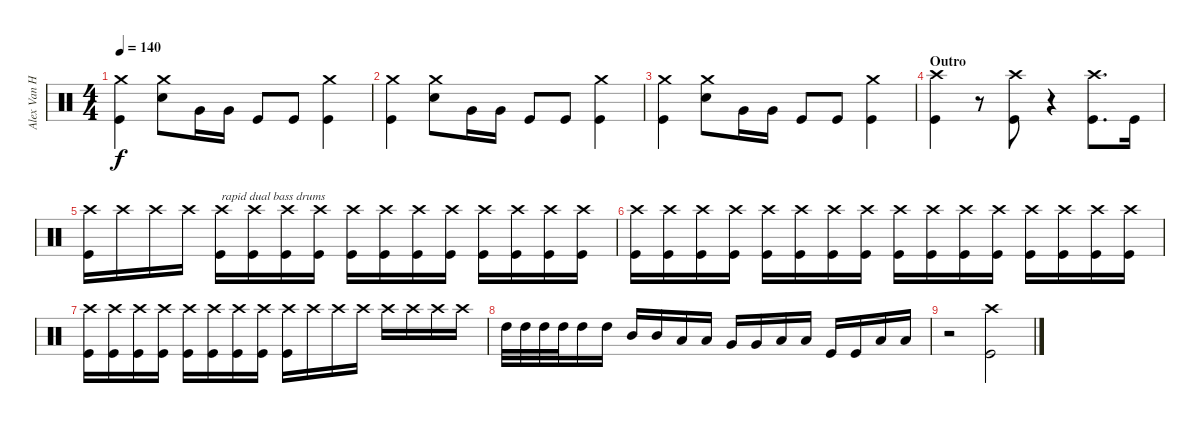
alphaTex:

\track ("Alex Van Halen (Drums)" "Alex Van H") {instrument percussion}
\staff {score}
\articulation defaults
\ts (4 4)
\tempo 140
\clef neutral
\ks c
("Crash medium (hit)" "Kick (hit)").4{dy f} ("Crash medium (hit)" "Snare (hit) 2").8 "Very Low Tom (hit)".16 "Very Low Tom (hit)".16 "Kick (hit)".8 "Kick (hit)".8 ("Crash medium (hit)" "Kick (hit)").4 |
("Crash medium (hit)" "Kick (hit)").4 ("Crash medium (hit)" "Snare (hit) 2").8 "Very Low Tom (hit)".16 "Very Low Tom (hit)".16 "Kick (hit)".8 "Kick (hit)".8 ("Crash medium (hit)" "Kick (hit)").4 |
("Crash medium (hit)" "Kick (hit)").4 ("Crash medium (hit)" "Snare (hit) 2").8 "Very Low Tom (hit)".16 "Very Low Tom (hit)".16 "Kick (hit)".8 "Kick (hit)".8 ("Crash medium (hit)" "Kick (hit)").4 |
\section ("" "Outro")
("Crash high (hit)" "Kick (hit)").4 r.8 ("Crash high (hit)" "Kick (hit)").8 r.4 ("Crash high (hit)" "Kick (hit)").8{d} "Kick (hit)".16 |
("Crash high (hit)" "Kick (hit)").16 "Crash high (hit)".16 "Crash high (hit)".16 "Crash high (hit)".16 ("Crash high (hit)" "Kick (hit)").16{txt "rapid dual bass drums"} ("Crash high (hit)" "Kick (hit)").16 ("Crash high (hit)" "Kick (hit)").16 ("Crash high (hit)" "Kick (hit)").16 ("Crash high (hit)" "Kick (hit)").16 ("Crash high (hit)" "Kick (hit)").16 ("Crash high (hit)" "Kick (hit)").16 ("Crash high (hit)" "Kick (hit)").16 ("Crash high (hit)" "Kick (hit)").16 ("Crash high (hit)" "Kick (hit)").16 ("Crash high (hit)" "Kick (hit)").16 ("Crash high (hit)" "Kick (hit)").16 |
("Crash high (hit)" "Kick (hit)").16 ("Crash high (hit)" "Kick (hit)").16 ("Crash high (hit)" "Kick (hit)").16 ("Crash high (hit)" "Kick (hit)").16 ("Crash high (hit)" "Kick (hit)").16 ("Crash high (hit)" "Kick (hit)").16 ("Crash high (hit)" "Kick (hit)").16 ("Crash high (hit)" "Kick (hit)").16 ("Crash high (hit)" "Kick (hit)").16 ("Crash high (hit)" "Kick (hit)").16 ("Crash high (hit)" "Kick (hit)").16 ("Crash high (hit)" "Kick (hit)").16 ("Crash high (hit)" "Kick (hit)").16 ("Crash high (hit)" "Kick (hit)").16 ("Crash high (hit)" "Kick (hit)").16 ("Crash high (hit)" "Kick (hit)").16 |
("Crash high (hit)" "Kick (hit)").16 ("Crash high (hit)" "Kick (hit)").16 ("Crash high (hit)" "Kick (hit)").16 ("Crash high (hit)" "Kick (hit)").16 ("Crash high (hit)" "Kick (hit)").16 ("Crash high (hit)" "Kick (hit)").16 ("Crash high (hit)" "Kick (hit)").16 ("Crash high (hit)" "Kick (hit)").16 ("Crash high (hit)" "Kick (hit)").16 "Crash high (hit)".16 "Crash high (hit)".16 "Crash high (hit)".16 "Crash high (hit)".16 "Crash high (hit)".16 "Crash high (hit)".16 "Crash high (hit)".16 |
"High Tom (hit)".32 "High Tom (hit)".32 "High Tom (hit)".32 "High Tom (hit)".32 "High Tom (hit)".16 "High Tom (hit)".16 "Mid Tom (hit)".16 "Mid Tom (hit)".16 "Low Tom (hit)".16 "Low Tom (hit)".16 "Very Low Tom (hit)".16 "Very Low Tom (hit)".16 "Low Floor Tom (hit)".16 "Low Floor Tom (hit)".16 "Kick (hit)".16 "Kick (hit)".16 "Low Floor Tom (hit)".16 "Low Floor Tom (hit)".16 |
r.2 ("Crash high (hit)" "Kick (hit)").2
